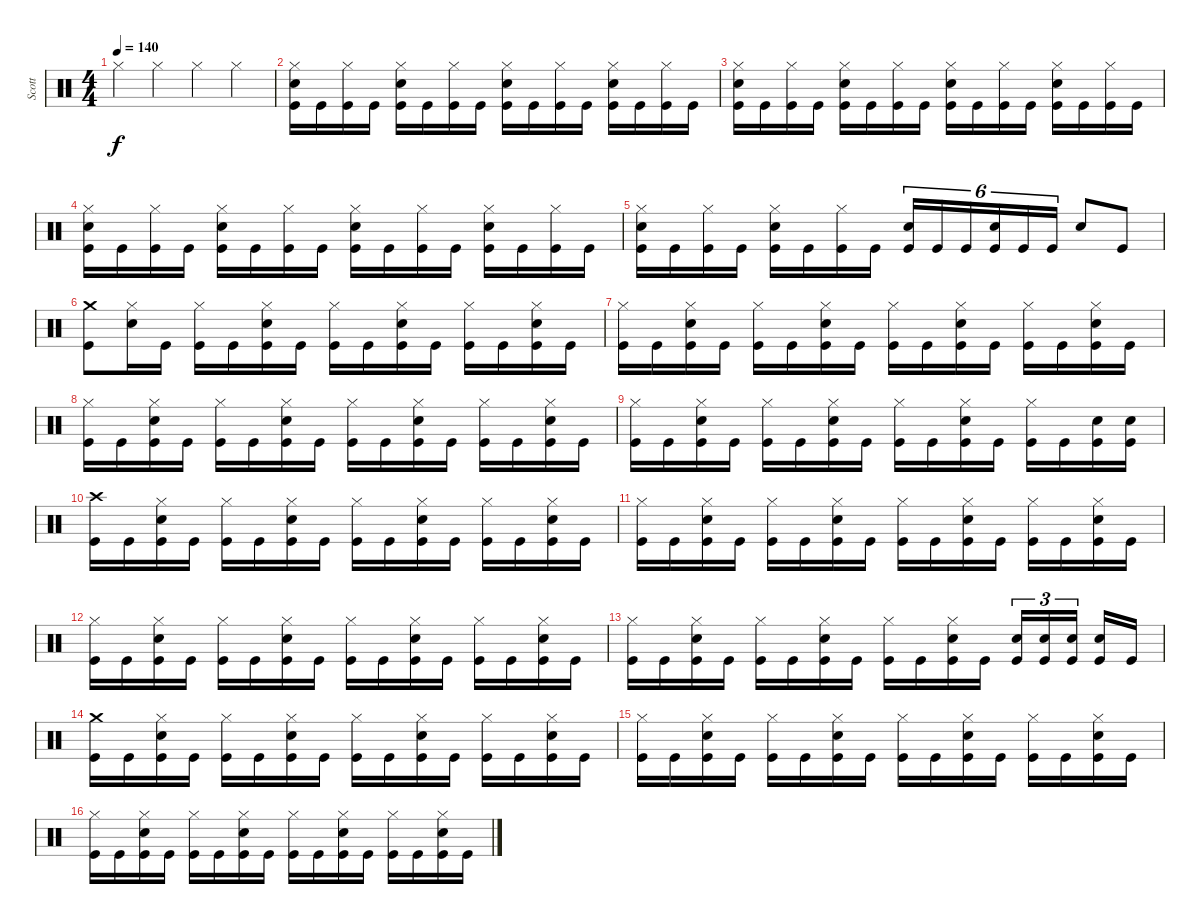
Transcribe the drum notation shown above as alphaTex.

\track ("Scott" "Scott") {instrument percussion}
\staff {score}
\articulation defaults
\ts (4 4)
\tempo 140
\clef neutral
\ks c "Hi-Hat (closed)".4{dy f} "Hi-Hat (closed)".4 "Hi-Hat (closed)".4 "Hi-Hat (closed)".4
|
("Kick (hit)" "Snare (hit) 2" "Hi-Hat (closed)").16 "Kick (hit)".16 ("Kick (hit)" "Hi-Hat (closed)").16 "Kick (hit)".16 ("Kick (hit)" "Snare (hit) 2" "Hi-Hat (closed)").16 "Kick (hit)".16 ("Kick (hit)" "Hi-Hat (closed)").16 "Kick (hit)".16 ("Kick (hit)" "Snare (hit) 2" "Hi-Hat (closed)").16 "Kick (hit)".16 ("Kick (hit)" "Hi-Hat (closed)").16 "Kick (hit)".16 ("Kick (hit)" "Snare (hit) 2" "Hi-Hat (closed)").16 "Kick (hit)".16 ("Kick (hit)" "Hi-Hat (closed)").16 "Kick (hit)".16 |
("Kick (hit)" "Snare (hit) 2" "Hi-Hat (closed)").16 "Kick (hit)".16 ("Kick (hit)" "Hi-Hat (closed)").16 "Kick (hit)".16 ("Kick (hit)" "Snare (hit) 2" "Hi-Hat (closed)").16 "Kick (hit)".16 ("Kick (hit)" "Hi-Hat (closed)").16 "Kick (hit)".16 ("Kick (hit)" "Snare (hit) 2" "Hi-Hat (closed)").16 "Kick (hit)".16 ("Kick (hit)" "Hi-Hat (closed)").16 "Kick (hit)".16 ("Kick (hit)" "Snare (hit) 2" "Hi-Hat (closed)").16 "Kick (hit)".16 ("Kick (hit)" "Hi-Hat (closed)").16 "Kick (hit)".16 |
("Kick (hit)" "Snare (hit) 2" "Hi-Hat (closed)").16 "Kick (hit)".16 ("Kick (hit)" "Hi-Hat (closed)").16 "Kick (hit)".16 ("Kick (hit)" "Snare (hit) 2" "Hi-Hat (closed)").16 "Kick (hit)".16 ("Kick (hit)" "Hi-Hat (closed)").16 "Kick (hit)".16 ("Kick (hit)" "Snare (hit) 2" "Hi-Hat (closed)").16 "Kick (hit)".16 ("Kick (hit)" "Hi-Hat (closed)").16 "Kick (hit)".16 ("Kick (hit)" "Snare (hit) 2" "Hi-Hat (closed)").16 "Kick (hit)".16 ("Kick (hit)" "Hi-Hat (closed)").16 "Kick (hit)".16 |
("Kick (hit)" "Snare (hit) 2" "Hi-Hat (closed)").16 "Kick (hit)".16 ("Kick (hit)" "Hi-Hat (closed)").16 "Kick (hit)".16 ("Kick (hit)" "Snare (hit) 2" "Hi-Hat (closed)").16 "Kick (hit)".16 ("Kick (hit)" "Hi-Hat (closed)").16 "Kick (hit)".16 ("Kick (hit)" "Snare (hit) 2").16{tu (6 4)} "Kick (hit)".16{tu (6 4)} "Kick (hit)".16{tu (6 4)} ("Kick (hit)" "Snare (hit) 2").16{tu (6 4)} "Kick (hit)".16{tu (6 4)} "Kick (hit)".16{tu (6 4)} "Snare (hit) 2".8 "Kick (hit)".8 |
("Kick (hit)" "Crash medium (hit)").8 ("Snare (hit) 2" "Hi-Hat (closed)").16 "Kick (hit)".16 ("Kick (hit)" "Hi-Hat (closed)").16 "Kick (hit)".16 ("Kick (hit)" "Snare (hit) 2" "Hi-Hat (closed)").16 "Kick (hit)".16 ("Kick (hit)" "Hi-Hat (closed)").16 "Kick (hit)".16 ("Kick (hit)" "Snare (hit) 2" "Hi-Hat (closed)").16 "Kick (hit)".16 ("Kick (hit)" "Hi-Hat (closed)").16 "Kick (hit)".16 ("Kick (hit)" "Snare (hit) 2" "Hi-Hat (closed)").16 "Kick (hit)".16 |
("Kick (hit)" "Hi-Hat (closed)").16 "Kick (hit)".16 ("Kick (hit)" "Snare (hit) 2" "Hi-Hat (closed)").16 "Kick (hit)".16 ("Kick (hit)" "Hi-Hat (closed)").16 "Kick (hit)".16 ("Kick (hit)" "Snare (hit) 2" "Hi-Hat (closed)").16 "Kick (hit)".16 ("Kick (hit)" "Hi-Hat (closed)").16 "Kick (hit)".16 ("Kick (hit)" "Snare (hit) 2" "Hi-Hat (closed)").16 "Kick (hit)".16 ("Kick (hit)" "Hi-Hat (closed)").16 "Kick (hit)".16 ("Kick (hit)" "Snare (hit) 2" "Hi-Hat (closed)").16 "Kick (hit)".16 |
("Kick (hit)" "Hi-Hat (closed)").16 "Kick (hit)".16 ("Kick (hit)" "Snare (hit) 2" "Hi-Hat (closed)").16 "Kick (hit)".16 ("Kick (hit)" "Hi-Hat (closed)").16 "Kick (hit)".16 ("Kick (hit)" "Snare (hit) 2" "Hi-Hat (closed)").16 "Kick (hit)".16 ("Kick (hit)" "Hi-Hat (closed)").16 "Kick (hit)".16 ("Kick (hit)" "Snare (hit) 2" "Hi-Hat (closed)").16 "Kick (hit)".16 ("Kick (hit)" "Hi-Hat (closed)").16 "Kick (hit)".16 ("Kick (hit)" "Snare (hit) 2" "Hi-Hat (closed)").16 "Kick (hit)".16 |
("Kick (hit)" "Hi-Hat (closed)").16 "Kick (hit)".16 ("Kick (hit)" "Snare (hit) 2" "Hi-Hat (closed)").16 "Kick (hit)".16 ("Kick (hit)" "Hi-Hat (closed)").16 "Kick (hit)".16 ("Kick (hit)" "Snare (hit) 2" "Hi-Hat (closed)").16 "Kick (hit)".16 ("Kick (hit)" "Hi-Hat (closed)").16 "Kick (hit)".16 ("Kick (hit)" "Snare (hit) 2" "Hi-Hat (closed)").16 "Kick (hit)".16 ("Kick (hit)" "Hi-Hat (closed)").16 "Kick (hit)".16 ("Kick (hit)" "Snare (hit) 2").16 ("Kick (hit)" "Snare (hit) 2").16 |
("Kick (hit)" "Crash high (hit)").16 "Kick (hit)".16 ("Kick (hit)" "Snare (hit) 2" "Hi-Hat (closed)").16 "Kick (hit)".16 ("Kick (hit)" "Hi-Hat (closed)").16 "Kick (hit)".16 ("Kick (hit)" "Snare (hit) 2" "Hi-Hat (closed)").16 "Kick (hit)".16 ("Kick (hit)" "Hi-Hat (closed)").16 "Kick (hit)".16 ("Kick (hit)" "Snare (hit) 2" "Hi-Hat (closed)").16 "Kick (hit)".16 ("Kick (hit)" "Hi-Hat (closed)").16 "Kick (hit)".16 ("Kick (hit)" "Snare (hit) 2" "Hi-Hat (closed)").16 "Kick (hit)".16 |
("Kick (hit)" "Hi-Hat (closed)").16 "Kick (hit)".16 ("Kick (hit)" "Snare (hit) 2" "Hi-Hat (closed)").16 "Kick (hit)".16 ("Kick (hit)" "Hi-Hat (closed)").16 "Kick (hit)".16 ("Kick (hit)" "Snare (hit) 2" "Hi-Hat (closed)").16 "Kick (hit)".16 ("Kick (hit)" "Hi-Hat (closed)").16 "Kick (hit)".16 ("Kick (hit)" "Snare (hit) 2" "Hi-Hat (closed)").16 "Kick (hit)".16 ("Kick (hit)" "Hi-Hat (closed)").16 "Kick (hit)".16 ("Kick (hit)" "Snare (hit) 2" "Hi-Hat (closed)").16 "Kick (hit)".16 |
("Kick (hit)" "Hi-Hat (closed)").16 "Kick (hit)".16 ("Kick (hit)" "Snare (hit) 2" "Hi-Hat (closed)").16 "Kick (hit)".16 ("Kick (hit)" "Hi-Hat (closed)").16 "Kick (hit)".16 ("Kick (hit)" "Snare (hit) 2" "Hi-Hat (closed)").16 "Kick (hit)".16 ("Kick (hit)" "Hi-Hat (closed)").16 "Kick (hit)".16 ("Kick (hit)" "Snare (hit) 2" "Hi-Hat (closed)").16 "Kick (hit)".16 ("Kick (hit)" "Hi-Hat (closed)").16 "Kick (hit)".16 ("Kick (hit)" "Snare (hit) 2" "Hi-Hat (closed)").16 "Kick (hit)".16 |
("Kick (hit)" "Hi-Hat (closed)").16 "Kick (hit)".16 ("Kick (hit)" "Snare (hit) 2" "Hi-Hat (closed)").16 "Kick (hit)".16 ("Kick (hit)" "Hi-Hat (closed)").16 "Kick (hit)".16 ("Kick (hit)" "Snare (hit) 2" "Hi-Hat (closed)").16 "Kick (hit)".16 ("Kick (hit)" "Hi-Hat (closed)").16 "Kick (hit)".16 ("Kick (hit)" "Snare (hit) 2" "Hi-Hat (closed)").16 "Kick (hit)".16 ("Kick (hit)" "Snare (hit) 2").16{tu (3 2)} ("Kick (hit)" "Snare (hit) 2").16{tu (3 2)} ("Kick (hit)" "Snare (hit) 2").16{tu (3 2)} ("Kick (hit)" "Snare (hit) 2").16 "Kick (hit)".16 |
("Kick (hit)" "Crash medium (hit)").16 "Kick (hit)".16 ("Kick (hit)" "Snare (hit) 2" "Hi-Hat (closed)").16 "Kick (hit)".16 ("Kick (hit)" "Hi-Hat (closed)").16 "Kick (hit)".16 ("Kick (hit)" "Snare (hit) 2" "Hi-Hat (closed)").16 "Kick (hit)".16 ("Kick (hit)" "Hi-Hat (closed)").16 "Kick (hit)".16 ("Kick (hit)" "Snare (hit) 2" "Hi-Hat (closed)").16 "Kick (hit)".16 ("Kick (hit)" "Hi-Hat (closed)").16 "Kick (hit)".16 ("Kick (hit)" "Snare (hit) 2" "Hi-Hat (closed)").16 "Kick (hit)".16 |
("Kick (hit)" "Hi-Hat (closed)").16 "Kick (hit)".16 ("Kick (hit)" "Snare (hit) 2" "Hi-Hat (closed)").16 "Kick (hit)".16 ("Kick (hit)" "Hi-Hat (closed)").16 "Kick (hit)".16 ("Kick (hit)" "Snare (hit) 2" "Hi-Hat (closed)").16 "Kick (hit)".16 ("Kick (hit)" "Hi-Hat (closed)").16 "Kick (hit)".16 ("Kick (hit)" "Snare (hit) 2" "Hi-Hat (closed)").16 "Kick (hit)".16 ("Kick (hit)" "Hi-Hat (closed)").16 "Kick (hit)".16 ("Kick (hit)" "Snare (hit) 2" "Hi-Hat (closed)").16 "Kick (hit)".16 |
("Kick (hit)" "Hi-Hat (closed)").16 "Kick (hit)".16 ("Kick (hit)" "Snare (hit) 2" "Hi-Hat (closed)").16 "Kick (hit)".16 ("Kick (hit)" "Hi-Hat (closed)").16 "Kick (hit)".16 ("Kick (hit)" "Snare (hit) 2" "Hi-Hat (closed)").16 "Kick (hit)".16 ("Kick (hit)" "Hi-Hat (closed)").16 "Kick (hit)".16 ("Kick (hit)" "Snare (hit) 2" "Hi-Hat (closed)").16 "Kick (hit)".16 ("Kick (hit)" "Hi-Hat (closed)").16 "Kick (hit)".16 ("Kick (hit)" "Snare (hit) 2" "Hi-Hat (closed)").16 "Kick (hit)".16
